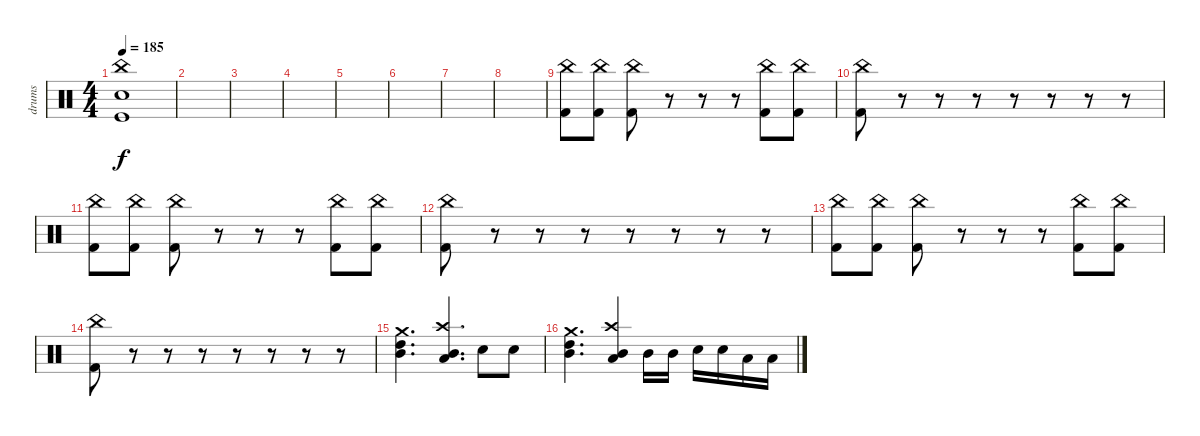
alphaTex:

\track ("drums" "drums") {instrument percussion}
\staff {score}
\articulation defaults
\ts (4 4)
\tempo 185
\clef neutral
\ks c
("China (hit)" "Snare (hit) 2" "Kick (hit)").1{dy f} |
|
|
|
|
|
|
|
("China (hit)" "Kick (hit) 2").8 ("China (hit)" "Kick (hit) 2").8 ("China (hit)" "Kick (hit) 2").8 r.8 r.8 r.8 ("China (hit)" "Kick (hit) 2").8 ("China (hit)" "Kick (hit) 2").8 |
("China (hit)" "Kick (hit) 2").8 r.8 r.8 r.8 r.8 r.8 r.8 r.8 |
("China (hit)" "Kick (hit) 2").8 ("China (hit)" "Kick (hit) 2").8 ("China (hit)" "Kick (hit) 2").8 r.8 r.8 r.8 ("China (hit)" "Kick (hit) 2").8 ("China (hit)" "Kick (hit) 2").8 |
("China (hit)" "Kick (hit) 2").8 r.8 r.8 r.8 r.8 r.8 r.8 r.8 |
("China (hit)" "Kick (hit) 2").8 ("China (hit)" "Kick (hit) 2").8 ("China (hit)" "Kick (hit) 2").8 r.8 r.8 r.8 ("China (hit)" "Kick (hit) 2").8 ("China (hit)" "Kick (hit) 2").8 |
("China (hit)" "Kick (hit) 2").8 r.8 r.8 r.8 r.8 r.8 r.8 r.8 |
("Crash medium (hit)" "High Tom (hit)" "Mid Tom (hit)").4{d} ("Crash high (hit)" "Mid Tom (hit)" "Low Tom (hit)").4{d} "Snare (hit) 2".8 "Snare (hit) 2".8 |
("Crash medium (hit)" "High Tom (hit)" "Mid Tom (hit)").4{d} ("Crash high (hit)" "Mid Tom (hit)" "Low Tom (hit)").4 "Mid Tom (hit)".16 "Mid Tom (hit)".16 "Snare (hit) 2".16 "Snare (hit) 2".16 "Low Tom (hit)".16 "Low Tom (hit)".16
